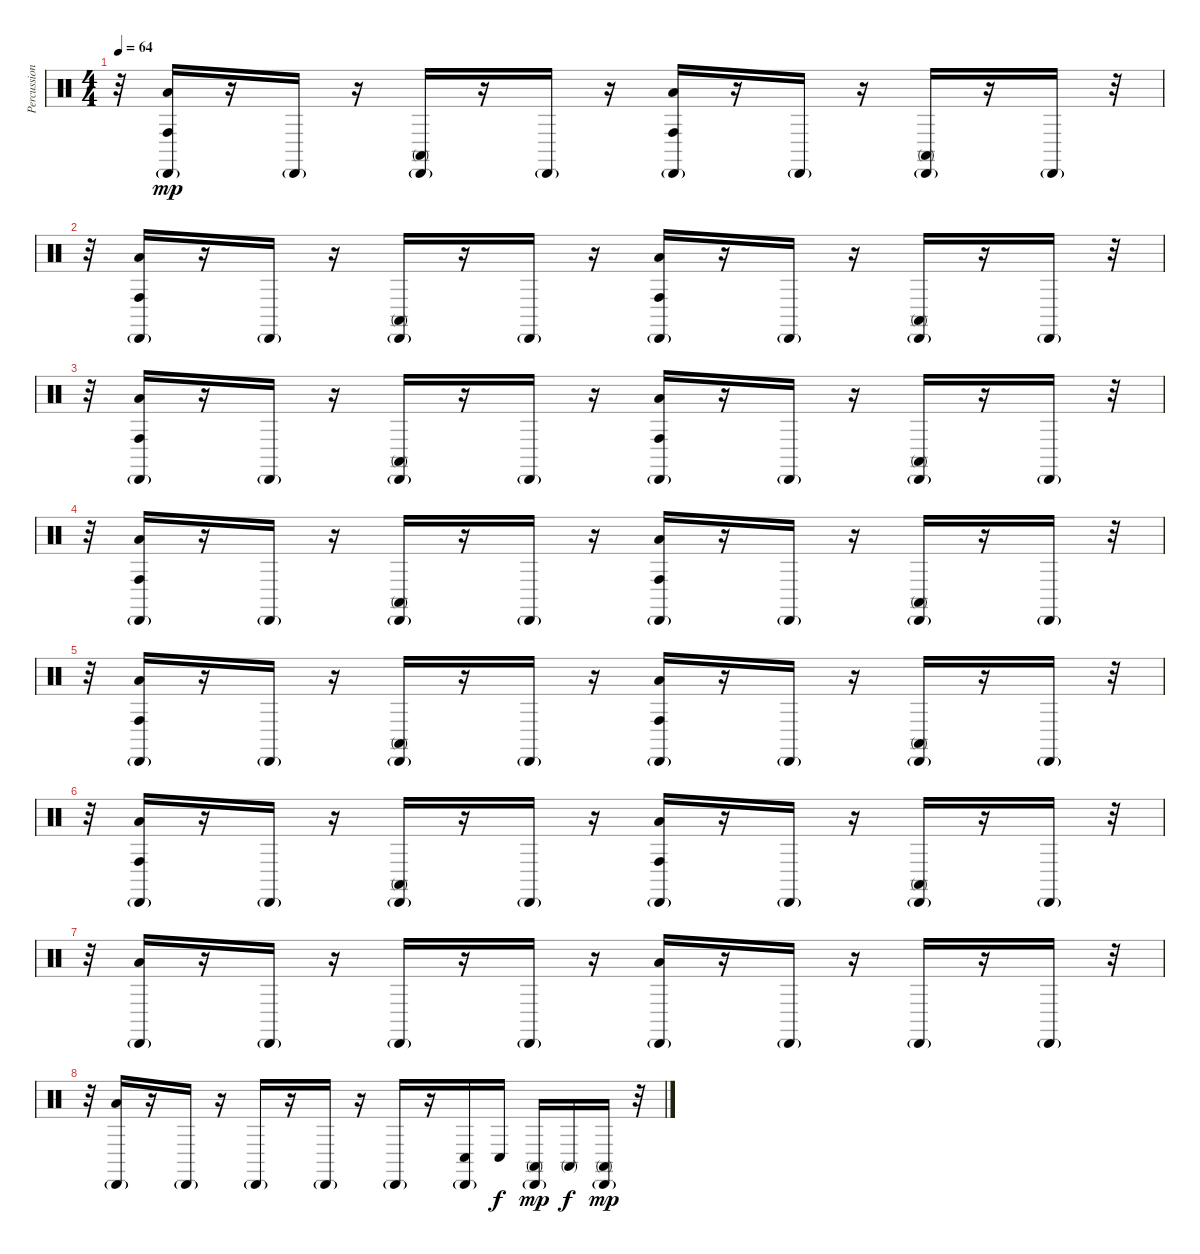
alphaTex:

\track ("Percussion" "Percussion") {instrument percussion}
\staff {score}
\articulation defaults
\ts (4 4)
\tempo 64
\clef neutral
\ks c
r.32{dy mp} ("Cabasa (hit)"{g} "Low Floor Tom (hit)" "Conga high (hit)").16 r.16 "Cabasa (hit)"{g}.16 r.16 ("Cabasa (hit)"{g} "Conga high (mute)").16 r.16 "Cabasa (hit)"{g}.16 r.16 ("Cabasa (hit)"{g} "Low Floor Tom (hit)" "Conga high (hit)").16 r.16 "Cabasa (hit)"{g}.16 r.16 ("Cabasa (hit)"{g} "Conga high (mute)").16 r.16 "Cabasa (hit)"{g}.16 r.32 |
r.32 ("Cabasa (hit)"{g} "Low Floor Tom (hit)" "Conga high (hit)").16 r.16 "Cabasa (hit)"{g}.16 r.16 ("Cabasa (hit)"{g} "Conga high (mute)").16 r.16 "Cabasa (hit)"{g}.16 r.16 ("Cabasa (hit)"{g} "Low Floor Tom (hit)" "Conga high (hit)").16 r.16 "Cabasa (hit)"{g}.16 r.16 ("Cabasa (hit)"{g} "Conga high (mute)").16 r.16 "Cabasa (hit)"{g}.16 r.32 |
r.32 ("Cabasa (hit)"{g} "Low Floor Tom (hit)" "Conga high (hit)").16 r.16 "Cabasa (hit)"{g}.16 r.16 ("Cabasa (hit)"{g} "Conga high (mute)").16 r.16 "Cabasa (hit)"{g}.16 r.16 ("Cabasa (hit)"{g} "Low Floor Tom (hit)" "Conga high (hit)").16 r.16 "Cabasa (hit)"{g}.16 r.16 ("Cabasa (hit)"{g} "Conga high (mute)").16 r.16 "Cabasa (hit)"{g}.16 r.32 |
r.32 ("Cabasa (hit)"{g} "Low Floor Tom (hit)" "Conga high (hit)").16 r.16 "Cabasa (hit)"{g}.16 r.16 ("Cabasa (hit)"{g} "Conga high (mute)").16 r.16 "Cabasa (hit)"{g}.16 r.16 ("Cabasa (hit)"{g} "Low Floor Tom (hit)" "Conga high (hit)").16 r.16 "Cabasa (hit)"{g}.16 r.16 ("Cabasa (hit)"{g} "Conga high (mute)").16 r.16 "Cabasa (hit)"{g}.16 r.32 |
r.32 ("Cabasa (hit)"{g} "Low Floor Tom (hit)" "Conga high (hit)").16 r.16 "Cabasa (hit)"{g}.16 r.16 ("Cabasa (hit)"{g} "Conga high (mute)").16 r.16 "Cabasa (hit)"{g}.16 r.16 ("Cabasa (hit)"{g} "Low Floor Tom (hit)" "Conga high (hit)").16 r.16 "Cabasa (hit)"{g}.16 r.16 ("Cabasa (hit)"{g} "Conga high (mute)").16 r.16 "Cabasa (hit)"{g}.16 r.32 |
r.32 ("Cabasa (hit)"{g} "Low Floor Tom (hit)" "Conga high (hit)").16 r.16 "Cabasa (hit)"{g}.16 r.16 ("Cabasa (hit)"{g} "Conga high (mute)").16 r.16 "Cabasa (hit)"{g}.16 r.16 ("Cabasa (hit)"{g} "Low Floor Tom (hit)" "Conga high (hit)").16 r.16 "Cabasa (hit)"{g}.16 r.16 ("Cabasa (hit)"{g} "Conga high (mute)").16 r.16 "Cabasa (hit)"{g}.16 r.32 |
r.32 ("Cabasa (hit)"{g} "Low Floor Tom (hit)").16 r.16 "Cabasa (hit)"{g}.16 r.16 "Cabasa (hit)"{g}.16 r.16 "Cabasa (hit)"{g}.16 r.16 ("Cabasa (hit)"{g} "Low Floor Tom (hit)").16 r.16 "Cabasa (hit)"{g}.16 r.16 "Cabasa (hit)"{g}.16 r.16 "Cabasa (hit)"{g}.16 r.32 |
r.32 ("Cabasa (hit)"{g} "Low Floor Tom (hit)").16 r.16 "Cabasa (hit)"{g}.16 r.16 "Cabasa (hit)"{g}.16 r.16 "Cabasa (hit)"{g}.16 r.16 "Cabasa (hit)"{g}.16 r.16 ("Cabasa (hit)"{g} "Conga low (hit)").16 "Conga low (hit)".16{dy f} ("Cabasa (hit)"{g} "Conga high (mute)").16{dy mp} "Conga high (mute)".16{dy f} ("Cabasa (hit)"{g} "Conga high (mute)").16{dy mp} r.32
